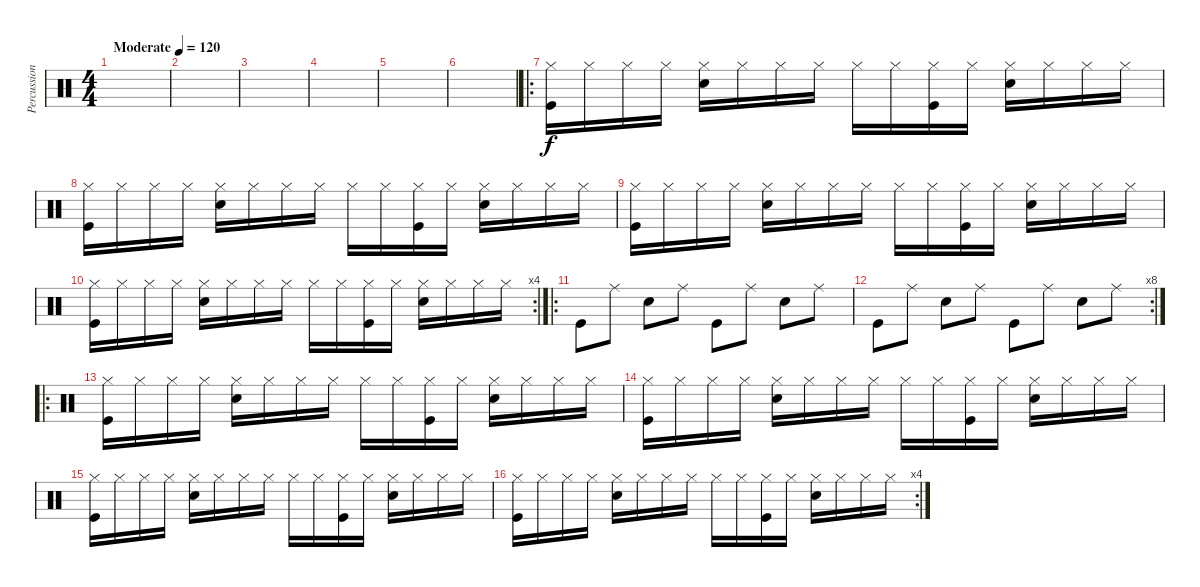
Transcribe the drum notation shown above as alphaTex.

\track ("Percussion" "Percussion") {instrument percussion}
\staff {score}
\articulation defaults
\ts (4 4)
\tempo (120 "Moderate")
\clef neutral
\ks c
|
|
|
|
|
|
\ro
("Hi-Hat (closed)" "Kick (hit)").16 "Hi-Hat (closed)".16 "Hi-Hat (closed)".16 "Hi-Hat (closed)".16 ("Hi-Hat (closed)" "Snare (hit) 2").16 "Hi-Hat (closed)".16 "Hi-Hat (closed)".16 "Hi-Hat (closed)".16 "Hi-Hat (closed)".16 "Hi-Hat (closed)".16 ("Hi-Hat (closed)" "Kick (hit)").16 "Hi-Hat (closed)".16 ("Hi-Hat (closed)" "Snare (hit) 2").16 "Hi-Hat (closed)".16 "Hi-Hat (closed)".16 "Hi-Hat (closed)".16 |
("Hi-Hat (closed)" "Kick (hit)").16 "Hi-Hat (closed)".16 "Hi-Hat (closed)".16 "Hi-Hat (closed)".16 ("Hi-Hat (closed)" "Snare (hit) 2").16 "Hi-Hat (closed)".16 "Hi-Hat (closed)".16 "Hi-Hat (closed)".16 "Hi-Hat (closed)".16 "Hi-Hat (closed)".16 ("Hi-Hat (closed)" "Kick (hit)").16 "Hi-Hat (closed)".16 ("Hi-Hat (closed)" "Snare (hit) 2").16 "Hi-Hat (closed)".16 "Hi-Hat (closed)".16 "Hi-Hat (closed)".16 |
("Hi-Hat (closed)" "Kick (hit)").16 "Hi-Hat (closed)".16 "Hi-Hat (closed)".16 "Hi-Hat (closed)".16 ("Hi-Hat (closed)" "Snare (hit) 2").16 "Hi-Hat (closed)".16 "Hi-Hat (closed)".16 "Hi-Hat (closed)".16 "Hi-Hat (closed)".16 "Hi-Hat (closed)".16 ("Hi-Hat (closed)" "Kick (hit)").16 "Hi-Hat (closed)".16 ("Hi-Hat (closed)" "Snare (hit) 2").16 "Hi-Hat (closed)".16 "Hi-Hat (closed)".16 "Hi-Hat (closed)".16 |
\rc 4
("Hi-Hat (closed)" "Kick (hit)").16 "Hi-Hat (closed)".16 "Hi-Hat (closed)".16 "Hi-Hat (closed)".16 ("Hi-Hat (closed)" "Snare (hit) 2").16 "Hi-Hat (closed)".16 "Hi-Hat (closed)".16 "Hi-Hat (closed)".16 "Hi-Hat (closed)".16 "Hi-Hat (closed)".16 ("Hi-Hat (closed)" "Kick (hit)").16 "Hi-Hat (closed)".16 ("Hi-Hat (closed)" "Snare (hit) 2").16 "Hi-Hat (closed)".16 "Hi-Hat (closed)".16 "Hi-Hat (closed)".16 |
\ro "Kick (hit)".8 "Ride (middle)".8 "Snare (hit) 2".8 "Ride (middle)".8 "Kick (hit)".8 "Ride (middle)".8 "Snare (hit) 2".8 "Ride (middle)".8
|
\rc 8 "Kick (hit)".8 "Ride (middle)".8 "Snare (hit) 2".8 "Ride (middle)".8 "Kick (hit)".8 "Ride (middle)".8 "Snare (hit) 2".8 "Ride (middle)".8
|
\ro
("Hi-Hat (closed)" "Kick (hit)").16 "Hi-Hat (closed)".16 "Hi-Hat (closed)".16 "Hi-Hat (closed)".16 ("Hi-Hat (closed)" "Snare (hit) 2").16 "Hi-Hat (closed)".16 "Hi-Hat (closed)".16 "Hi-Hat (closed)".16 "Hi-Hat (closed)".16 "Hi-Hat (closed)".16 ("Hi-Hat (closed)" "Kick (hit)").16 "Hi-Hat (closed)".16 ("Hi-Hat (closed)" "Snare (hit) 2").16 "Hi-Hat (closed)".16 "Hi-Hat (closed)".16 "Hi-Hat (closed)".16 |
("Hi-Hat (closed)" "Kick (hit)").16 "Hi-Hat (closed)".16 "Hi-Hat (closed)".16 "Hi-Hat (closed)".16 ("Hi-Hat (closed)" "Snare (hit) 2").16 "Hi-Hat (closed)".16 "Hi-Hat (closed)".16 "Hi-Hat (closed)".16 "Hi-Hat (closed)".16 "Hi-Hat (closed)".16 ("Hi-Hat (closed)" "Kick (hit)").16 "Hi-Hat (closed)".16 ("Hi-Hat (closed)" "Snare (hit) 2").16 "Hi-Hat (closed)".16 "Hi-Hat (closed)".16 "Hi-Hat (closed)".16 |
("Hi-Hat (closed)" "Kick (hit)").16 "Hi-Hat (closed)".16 "Hi-Hat (closed)".16 "Hi-Hat (closed)".16 ("Hi-Hat (closed)" "Snare (hit) 2").16 "Hi-Hat (closed)".16 "Hi-Hat (closed)".16 "Hi-Hat (closed)".16 "Hi-Hat (closed)".16 "Hi-Hat (closed)".16 ("Hi-Hat (closed)" "Kick (hit)").16 "Hi-Hat (closed)".16 ("Hi-Hat (closed)" "Snare (hit) 2").16 "Hi-Hat (closed)".16 "Hi-Hat (closed)".16 "Hi-Hat (closed)".16 |
\rc 4
("Hi-Hat (closed)" "Kick (hit)").16 "Hi-Hat (closed)".16 "Hi-Hat (closed)".16 "Hi-Hat (closed)".16 ("Hi-Hat (closed)" "Snare (hit) 2").16 "Hi-Hat (closed)".16 "Hi-Hat (closed)".16 "Hi-Hat (closed)".16 "Hi-Hat (closed)".16 "Hi-Hat (closed)".16 ("Hi-Hat (closed)" "Kick (hit)").16 "Hi-Hat (closed)".16 ("Hi-Hat (closed)" "Snare (hit) 2").16 "Hi-Hat (closed)".16 "Hi-Hat (closed)".16 "Hi-Hat (closed)".16
